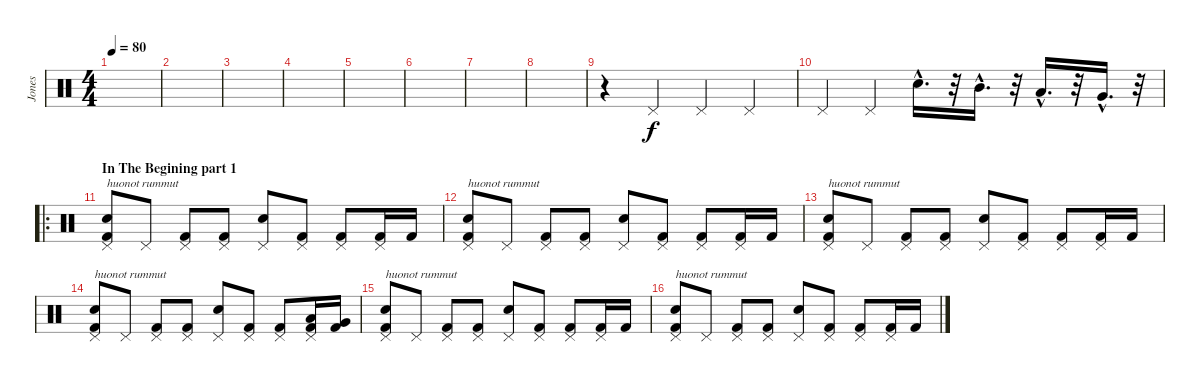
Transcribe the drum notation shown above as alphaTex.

\track ("Jones" "Jones") {instrument percussion}
\staff {score}
\articulation defaults
\ts (4 4)
\tempo 80
\clef neutral
\ks c
|
|
|
|
|
|
|
|
r.4 "Pedal Hi-Hat (hit)".4 "Pedal Hi-Hat (hit)".4 "Pedal Hi-Hat (hit)".4 |
"Pedal Hi-Hat (hit)".4 "Pedal Hi-Hat (hit)".4 "Snare (hit) 2"{hac}.16{d} r.32 "Mid Tom (hit)"{hac}.16{d} r.32 "Low Tom (hit)"{hac}.16{d} r.32 "Very Low Tom (hit)"{hac}.16{d} r.32 |
\ro
\section ("" "In The Begining part 1")
("Pedal Hi-Hat (hit)" "Snare (hit) 2" "Kick (hit) 2").8{txt "huonot rummut"} "Pedal Hi-Hat (hit)".8 ("Pedal Hi-Hat (hit)" "Kick (hit) 2").8 ("Pedal Hi-Hat (hit)" "Kick (hit) 2").8 ("Pedal Hi-Hat (hit)" "Snare (hit) 2").8 ("Pedal Hi-Hat (hit)" "Kick (hit) 2").8 ("Pedal Hi-Hat (hit)" "Kick (hit) 2").8 ("Pedal Hi-Hat (hit)" "Kick (hit) 2").16 "Kick (hit) 2".16 |
("Pedal Hi-Hat (hit)" "Snare (hit) 2" "Kick (hit) 2").8{txt "huonot rummut"} "Pedal Hi-Hat (hit)".8 ("Pedal Hi-Hat (hit)" "Kick (hit) 2").8 ("Pedal Hi-Hat (hit)" "Kick (hit) 2").8 ("Pedal Hi-Hat (hit)" "Snare (hit) 2").8 ("Pedal Hi-Hat (hit)" "Kick (hit) 2").8 ("Pedal Hi-Hat (hit)" "Kick (hit) 2").8 ("Pedal Hi-Hat (hit)" "Kick (hit) 2").16 "Kick (hit) 2".16 |
("Pedal Hi-Hat (hit)" "Snare (hit) 2" "Kick (hit) 2").8{txt "huonot rummut"} "Pedal Hi-Hat (hit)".8 ("Pedal Hi-Hat (hit)" "Kick (hit) 2").8 ("Pedal Hi-Hat (hit)" "Kick (hit) 2").8 ("Pedal Hi-Hat (hit)" "Snare (hit) 2").8 ("Pedal Hi-Hat (hit)" "Kick (hit) 2").8 ("Pedal Hi-Hat (hit)" "Kick (hit) 2").8 ("Pedal Hi-Hat (hit)" "Kick (hit) 2").16 "Kick (hit) 2".16 |
("Pedal Hi-Hat (hit)" "Snare (hit) 2" "Kick (hit) 2").8{txt "huonot rummut"} "Pedal Hi-Hat (hit)".8 ("Pedal Hi-Hat (hit)" "Kick (hit) 2").8 ("Pedal Hi-Hat (hit)" "Kick (hit) 2").8 ("Pedal Hi-Hat (hit)" "Snare (hit) 2").8 ("Pedal Hi-Hat (hit)" "Kick (hit) 2").8 ("Pedal Hi-Hat (hit)" "Kick (hit) 2").8 ("Pedal Hi-Hat (hit)" "Low Tom (hit)" "Kick (hit) 2").16 ("Very Low Tom (hit)" "Kick (hit) 2").16 |
("Pedal Hi-Hat (hit)" "Snare (hit) 2" "Kick (hit) 2").8{txt "huonot rummut"} "Pedal Hi-Hat (hit)".8 ("Pedal Hi-Hat (hit)" "Kick (hit) 2").8 ("Pedal Hi-Hat (hit)" "Kick (hit) 2").8 ("Pedal Hi-Hat (hit)" "Snare (hit) 2").8 ("Pedal Hi-Hat (hit)" "Kick (hit) 2").8 ("Pedal Hi-Hat (hit)" "Kick (hit) 2").8 ("Pedal Hi-Hat (hit)" "Kick (hit) 2").16 "Kick (hit) 2".16 |
("Pedal Hi-Hat (hit)" "Snare (hit) 2" "Kick (hit) 2").8{txt "huonot rummut"} "Pedal Hi-Hat (hit)".8 ("Pedal Hi-Hat (hit)" "Kick (hit) 2").8 ("Pedal Hi-Hat (hit)" "Kick (hit) 2").8 ("Pedal Hi-Hat (hit)" "Snare (hit) 2").8 ("Pedal Hi-Hat (hit)" "Kick (hit) 2").8 ("Pedal Hi-Hat (hit)" "Kick (hit) 2").8 ("Pedal Hi-Hat (hit)" "Kick (hit) 2").16 "Kick (hit) 2".16
